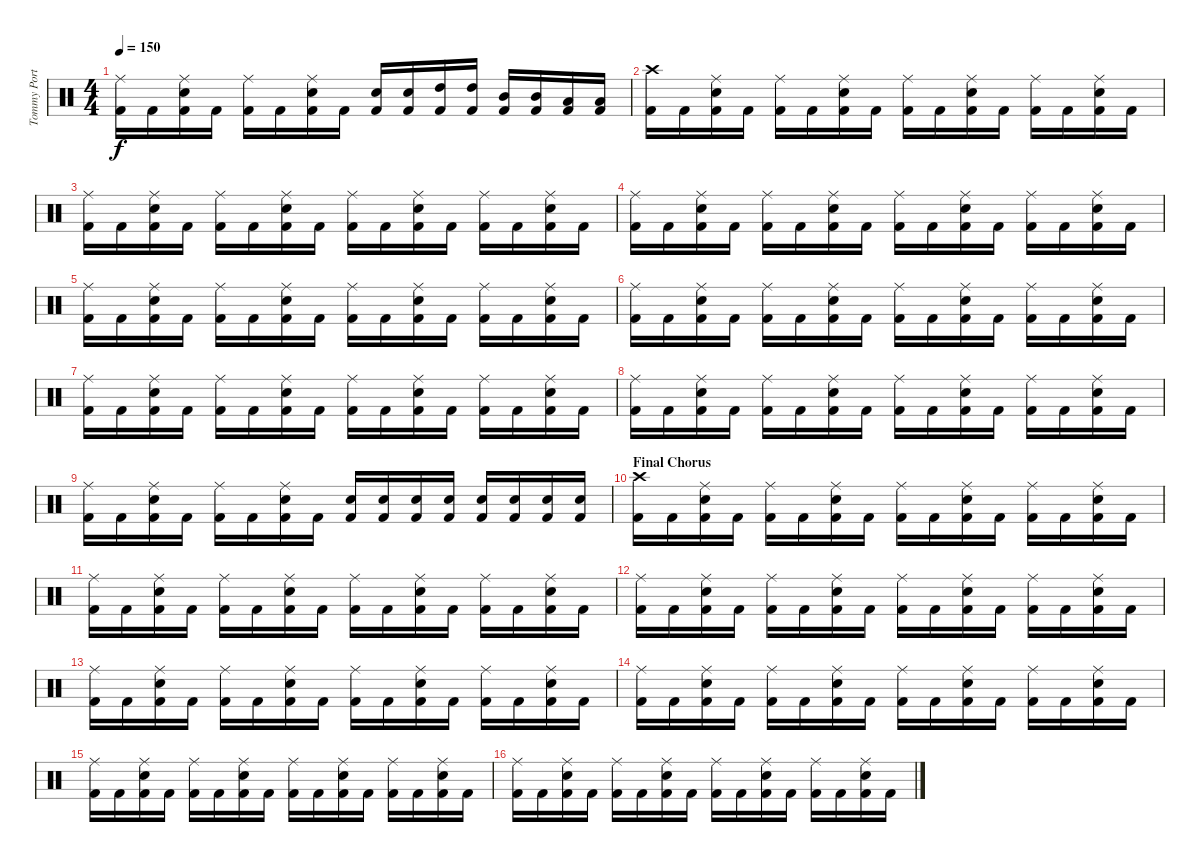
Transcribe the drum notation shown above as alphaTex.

\track ("Tommy Portino - Drums" "Tommy Port") {instrument percussion}
\staff {score}
\articulation defaults
\ts (4 4)
\tempo 150
\clef neutral
\ks c
("Ride (middle)" "Kick (hit) 2").16{dy f} "Kick (hit) 2".16 ("Ride (middle)" "Electric Snare (hit)" "Kick (hit) 2").16 "Kick (hit) 2".16 ("Ride (middle)" "Kick (hit) 2").16 "Kick (hit) 2".16 ("Ride (middle)" "Electric Snare (hit)" "Kick (hit) 2").16 "Kick (hit) 2".16 ("Electric Snare (hit)" "Kick (hit) 2").16 ("Electric Snare (hit)" "Kick (hit) 2").16 ("High Tom (hit)" "Kick (hit) 2").16 ("High Tom (hit)" "Kick (hit) 2").16 ("Mid Tom (hit)" "Kick (hit) 2").16 ("Mid Tom (hit)" "Kick (hit) 2").16 ("Low Tom (hit)" "Kick (hit) 2").16 ("Low Tom (hit)" "Kick (hit) 2").16 |
("Crash high (hit)" "Kick (hit) 2").16 "Kick (hit) 2".16 ("Ride (middle)" "Electric Snare (hit)" "Kick (hit) 2").16 "Kick (hit) 2".16 ("Ride (middle)" "Kick (hit) 2").16 "Kick (hit) 2".16 ("Ride (middle)" "Electric Snare (hit)" "Kick (hit) 2").16 "Kick (hit) 2".16 ("Ride (middle)" "Kick (hit) 2").16 "Kick (hit) 2".16 ("Ride (middle)" "Electric Snare (hit)" "Kick (hit) 2").16 "Kick (hit) 2".16 ("Ride (middle)" "Kick (hit) 2").16 "Kick (hit) 2".16 ("Ride (middle)" "Electric Snare (hit)" "Kick (hit) 2").16 "Kick (hit) 2".16 |
("Ride (middle)" "Kick (hit) 2").16 "Kick (hit) 2".16 ("Ride (middle)" "Electric Snare (hit)" "Kick (hit) 2").16 "Kick (hit) 2".16 ("Ride (middle)" "Kick (hit) 2").16 "Kick (hit) 2".16 ("Ride (middle)" "Electric Snare (hit)" "Kick (hit) 2").16 "Kick (hit) 2".16 ("Ride (middle)" "Kick (hit) 2").16 "Kick (hit) 2".16 ("Ride (middle)" "Electric Snare (hit)" "Kick (hit) 2").16 "Kick (hit) 2".16 ("Ride (middle)" "Kick (hit) 2").16 "Kick (hit) 2".16 ("Ride (middle)" "Electric Snare (hit)" "Kick (hit) 2").16 "Kick (hit) 2".16 |
("Ride (middle)" "Kick (hit) 2").16 "Kick (hit) 2".16 ("Ride (middle)" "Electric Snare (hit)" "Kick (hit) 2").16 "Kick (hit) 2".16 ("Ride (middle)" "Kick (hit) 2").16 "Kick (hit) 2".16 ("Ride (middle)" "Electric Snare (hit)" "Kick (hit) 2").16 "Kick (hit) 2".16 ("Ride (middle)" "Kick (hit) 2").16 "Kick (hit) 2".16 ("Ride (middle)" "Electric Snare (hit)" "Kick (hit) 2").16 "Kick (hit) 2".16 ("Ride (middle)" "Kick (hit) 2").16 "Kick (hit) 2".16 ("Ride (middle)" "Electric Snare (hit)" "Kick (hit) 2").16 "Kick (hit) 2".16 |
("Ride (middle)" "Kick (hit) 2").16 "Kick (hit) 2".16 ("Ride (middle)" "Electric Snare (hit)" "Kick (hit) 2").16 "Kick (hit) 2".16 ("Ride (middle)" "Kick (hit) 2").16 "Kick (hit) 2".16 ("Ride (middle)" "Electric Snare (hit)" "Kick (hit) 2").16 "Kick (hit) 2".16 ("Ride (middle)" "Kick (hit) 2").16 "Kick (hit) 2".16 ("Ride (middle)" "Electric Snare (hit)" "Kick (hit) 2").16 "Kick (hit) 2".16 ("Ride (middle)" "Kick (hit) 2").16 "Kick (hit) 2".16 ("Ride (middle)" "Electric Snare (hit)" "Kick (hit) 2").16 "Kick (hit) 2".16 |
("Ride (middle)" "Kick (hit) 2").16 "Kick (hit) 2".16 ("Ride (middle)" "Electric Snare (hit)" "Kick (hit) 2").16 "Kick (hit) 2".16 ("Ride (middle)" "Kick (hit) 2").16 "Kick (hit) 2".16 ("Ride (middle)" "Electric Snare (hit)" "Kick (hit) 2").16 "Kick (hit) 2".16 ("Ride (middle)" "Kick (hit) 2").16 "Kick (hit) 2".16 ("Ride (middle)" "Electric Snare (hit)" "Kick (hit) 2").16 "Kick (hit) 2".16 ("Ride (middle)" "Kick (hit) 2").16 "Kick (hit) 2".16 ("Ride (middle)" "Electric Snare (hit)" "Kick (hit) 2").16 "Kick (hit) 2".16 |
("Ride (middle)" "Kick (hit) 2").16 "Kick (hit) 2".16 ("Ride (middle)" "Electric Snare (hit)" "Kick (hit) 2").16 "Kick (hit) 2".16 ("Ride (middle)" "Kick (hit) 2").16 "Kick (hit) 2".16 ("Ride (middle)" "Electric Snare (hit)" "Kick (hit) 2").16 "Kick (hit) 2".16 ("Ride (middle)" "Kick (hit) 2").16 "Kick (hit) 2".16 ("Ride (middle)" "Electric Snare (hit)" "Kick (hit) 2").16 "Kick (hit) 2".16 ("Ride (middle)" "Kick (hit) 2").16 "Kick (hit) 2".16 ("Ride (middle)" "Electric Snare (hit)" "Kick (hit) 2").16 "Kick (hit) 2".16 |
("Ride (middle)" "Kick (hit) 2").16 "Kick (hit) 2".16 ("Ride (middle)" "Electric Snare (hit)" "Kick (hit) 2").16 "Kick (hit) 2".16 ("Ride (middle)" "Kick (hit) 2").16 "Kick (hit) 2".16 ("Ride (middle)" "Electric Snare (hit)" "Kick (hit) 2").16 "Kick (hit) 2".16 ("Ride (middle)" "Kick (hit) 2").16 "Kick (hit) 2".16 ("Ride (middle)" "Electric Snare (hit)" "Kick (hit) 2").16 "Kick (hit) 2".16 ("Ride (middle)" "Kick (hit) 2").16 "Kick (hit) 2".16 ("Ride (middle)" "Electric Snare (hit)" "Kick (hit) 2").16 "Kick (hit) 2".16 |
("Ride (middle)" "Kick (hit) 2").16 "Kick (hit) 2".16 ("Ride (middle)" "Electric Snare (hit)" "Kick (hit) 2").16 "Kick (hit) 2".16 ("Ride (middle)" "Kick (hit) 2").16 "Kick (hit) 2".16 ("Ride (middle)" "Electric Snare (hit)" "Kick (hit) 2").16 "Kick (hit) 2".16 ("Electric Snare (hit)" "Kick (hit) 2").16 ("Electric Snare (hit)" "Kick (hit) 2").16 ("Electric Snare (hit)" "Kick (hit) 2").16 ("Electric Snare (hit)" "Kick (hit) 2").16 ("Electric Snare (hit)" "Kick (hit) 2").16 ("Electric Snare (hit)" "Kick (hit) 2").16 ("Electric Snare (hit)" "Kick (hit) 2").16 ("Electric Snare (hit)" "Kick (hit) 2").16 |
\section ("" "Final Chorus")
("Crash high (hit)" "Kick (hit) 2").16 "Kick (hit) 2".16 ("Ride (middle)" "Electric Snare (hit)" "Kick (hit) 2").16 "Kick (hit) 2".16 ("Ride (middle)" "Kick (hit) 2").16 "Kick (hit) 2".16 ("Ride (middle)" "Electric Snare (hit)" "Kick (hit) 2").16 "Kick (hit) 2".16 ("Ride (middle)" "Kick (hit) 2").16 "Kick (hit) 2".16 ("Ride (middle)" "Electric Snare (hit)" "Kick (hit) 2").16 "Kick (hit) 2".16 ("Ride (middle)" "Kick (hit) 2").16 "Kick (hit) 2".16 ("Ride (middle)" "Electric Snare (hit)" "Kick (hit) 2").16 "Kick (hit) 2".16 |
("Ride (middle)" "Kick (hit) 2").16 "Kick (hit) 2".16 ("Ride (middle)" "Electric Snare (hit)" "Kick (hit) 2").16 "Kick (hit) 2".16 ("Ride (middle)" "Kick (hit) 2").16 "Kick (hit) 2".16 ("Ride (middle)" "Electric Snare (hit)" "Kick (hit) 2").16 "Kick (hit) 2".16 ("Ride (middle)" "Kick (hit) 2").16 "Kick (hit) 2".16 ("Ride (middle)" "Electric Snare (hit)" "Kick (hit) 2").16 "Kick (hit) 2".16 ("Ride (middle)" "Kick (hit) 2").16 "Kick (hit) 2".16 ("Ride (middle)" "Electric Snare (hit)" "Kick (hit) 2").16 "Kick (hit) 2".16 |
("Ride (middle)" "Kick (hit) 2").16 "Kick (hit) 2".16 ("Ride (middle)" "Electric Snare (hit)" "Kick (hit) 2").16 "Kick (hit) 2".16 ("Ride (middle)" "Kick (hit) 2").16 "Kick (hit) 2".16 ("Ride (middle)" "Electric Snare (hit)" "Kick (hit) 2").16 "Kick (hit) 2".16 ("Ride (middle)" "Kick (hit) 2").16 "Kick (hit) 2".16 ("Ride (middle)" "Electric Snare (hit)" "Kick (hit) 2").16 "Kick (hit) 2".16 ("Ride (middle)" "Kick (hit) 2").16 "Kick (hit) 2".16 ("Ride (middle)" "Electric Snare (hit)" "Kick (hit) 2").16 "Kick (hit) 2".16 |
("Ride (middle)" "Kick (hit) 2").16 "Kick (hit) 2".16 ("Ride (middle)" "Electric Snare (hit)" "Kick (hit) 2").16 "Kick (hit) 2".16 ("Ride (middle)" "Kick (hit) 2").16 "Kick (hit) 2".16 ("Ride (middle)" "Electric Snare (hit)" "Kick (hit) 2").16 "Kick (hit) 2".16 ("Ride (middle)" "Kick (hit) 2").16 "Kick (hit) 2".16 ("Ride (middle)" "Electric Snare (hit)" "Kick (hit) 2").16 "Kick (hit) 2".16 ("Ride (middle)" "Kick (hit) 2").16 "Kick (hit) 2".16 ("Ride (middle)" "Electric Snare (hit)" "Kick (hit) 2").16 "Kick (hit) 2".16 |
("Ride (middle)" "Kick (hit) 2").16 "Kick (hit) 2".16 ("Ride (middle)" "Electric Snare (hit)" "Kick (hit) 2").16 "Kick (hit) 2".16 ("Ride (middle)" "Kick (hit) 2").16 "Kick (hit) 2".16 ("Ride (middle)" "Electric Snare (hit)" "Kick (hit) 2").16 "Kick (hit) 2".16 ("Ride (middle)" "Kick (hit) 2").16 "Kick (hit) 2".16 ("Ride (middle)" "Electric Snare (hit)" "Kick (hit) 2").16 "Kick (hit) 2".16 ("Ride (middle)" "Kick (hit) 2").16 "Kick (hit) 2".16 ("Ride (middle)" "Electric Snare (hit)" "Kick (hit) 2").16 "Kick (hit) 2".16 |
("Ride (middle)" "Kick (hit) 2").16 "Kick (hit) 2".16 ("Ride (middle)" "Electric Snare (hit)" "Kick (hit) 2").16 "Kick (hit) 2".16 ("Ride (middle)" "Kick (hit) 2").16 "Kick (hit) 2".16 ("Ride (middle)" "Electric Snare (hit)" "Kick (hit) 2").16 "Kick (hit) 2".16 ("Ride (middle)" "Kick (hit) 2").16 "Kick (hit) 2".16 ("Ride (middle)" "Electric Snare (hit)" "Kick (hit) 2").16 "Kick (hit) 2".16 ("Ride (middle)" "Kick (hit) 2").16 "Kick (hit) 2".16 ("Ride (middle)" "Electric Snare (hit)" "Kick (hit) 2").16 "Kick (hit) 2".16 |
("Ride (middle)" "Kick (hit) 2").16 "Kick (hit) 2".16 ("Ride (middle)" "Electric Snare (hit)" "Kick (hit) 2").16 "Kick (hit) 2".16 ("Ride (middle)" "Kick (hit) 2").16 "Kick (hit) 2".16 ("Ride (middle)" "Electric Snare (hit)" "Kick (hit) 2").16 "Kick (hit) 2".16 ("Ride (middle)" "Kick (hit) 2").16 "Kick (hit) 2".16 ("Ride (middle)" "Electric Snare (hit)" "Kick (hit) 2").16 "Kick (hit) 2".16 ("Ride (middle)" "Kick (hit) 2").16 "Kick (hit) 2".16 ("Ride (middle)" "Electric Snare (hit)" "Kick (hit) 2").16 "Kick (hit) 2".16
